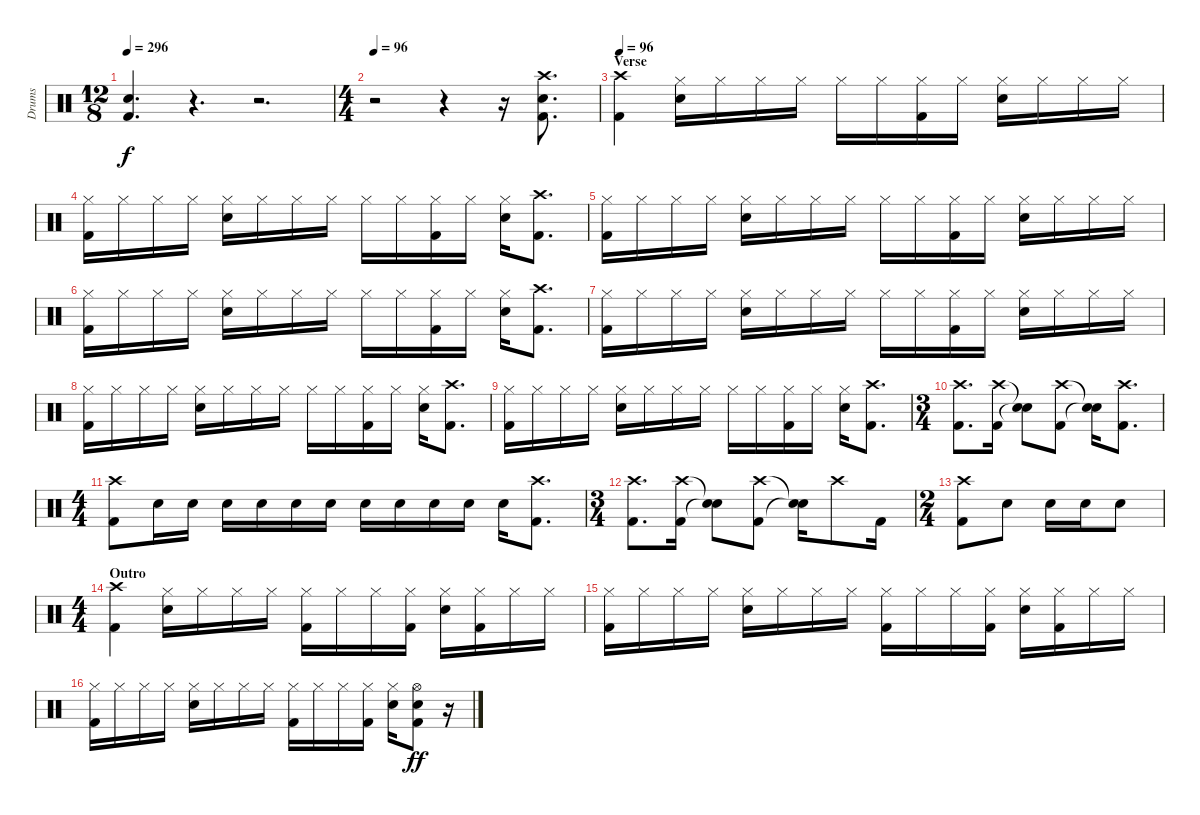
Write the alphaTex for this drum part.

\track ("Drums" "Drums") {instrument percussion}
\staff {score}
\articulation defaults
\ts (12 8)
\tempo 296
\clef neutral
\ks c
("Electric Snare (hit)" "Kick (hit) 2").4{d dy f} r.4{d} r.2{d} |
\ts (4 4)
\tempo 96
r.2 r.4 r.16 ("Crash high (hit)" "Electric Snare (hit)" "Kick (hit) 2").8{d} |
\section ("" "Verse")
\tempo 96
("Crash high (hit)" "Kick (hit) 2").4 ("Hi-Hat (closed)" "Electric Snare (hit)").16 "Hi-Hat (closed)".16 "Hi-Hat (closed)".16 "Hi-Hat (closed)".16 "Hi-Hat (closed)".16 "Hi-Hat (closed)".16 ("Hi-Hat (closed)" "Kick (hit) 2").16 "Hi-Hat (closed)".16 ("Hi-Hat (closed)" "Electric Snare (hit)").16 "Hi-Hat (closed)".16 "Hi-Hat (closed)".16 "Hi-Hat (closed)".16 |
("Hi-Hat (closed)" "Kick (hit) 2").16 "Hi-Hat (closed)".16 "Hi-Hat (closed)".16 "Hi-Hat (closed)".16 ("Hi-Hat (closed)" "Electric Snare (hit)").16 "Hi-Hat (closed)".16 "Hi-Hat (closed)".16 "Hi-Hat (closed)".16 "Hi-Hat (closed)".16 "Hi-Hat (closed)".16 ("Hi-Hat (closed)" "Kick (hit) 2").16 "Hi-Hat (closed)".16 ("Hi-Hat (closed)" "Electric Snare (hit)").16 ("Crash high (hit)" "Kick (hit) 2").8{d} |
("Hi-Hat (closed)" "Kick (hit) 2").16 "Hi-Hat (closed)".16 "Hi-Hat (closed)".16 "Hi-Hat (closed)".16 ("Hi-Hat (closed)" "Electric Snare (hit)").16 "Hi-Hat (closed)".16 "Hi-Hat (closed)".16 "Hi-Hat (closed)".16 "Hi-Hat (closed)".16 "Hi-Hat (closed)".16 ("Hi-Hat (closed)" "Kick (hit) 2").16 "Hi-Hat (closed)".16 ("Hi-Hat (closed)" "Electric Snare (hit)").16 "Hi-Hat (closed)".16 "Hi-Hat (closed)".16 "Hi-Hat (closed)".16 |
("Hi-Hat (closed)" "Kick (hit) 2").16 "Hi-Hat (closed)".16 "Hi-Hat (closed)".16 "Hi-Hat (closed)".16 ("Hi-Hat (closed)" "Electric Snare (hit)").16 "Hi-Hat (closed)".16 "Hi-Hat (closed)".16 "Hi-Hat (closed)".16 "Hi-Hat (closed)".16 "Hi-Hat (closed)".16 ("Hi-Hat (closed)" "Kick (hit) 2").16 "Hi-Hat (closed)".16 ("Hi-Hat (closed)" "Electric Snare (hit)").16 ("Crash high (hit)" "Kick (hit) 2").8{d} |
("Hi-Hat (closed)" "Kick (hit) 2").16 "Hi-Hat (closed)".16 "Hi-Hat (closed)".16 "Hi-Hat (closed)".16 ("Hi-Hat (closed)" "Electric Snare (hit)").16 "Hi-Hat (closed)".16 "Hi-Hat (closed)".16 "Hi-Hat (closed)".16 "Hi-Hat (closed)".16 "Hi-Hat (closed)".16 ("Hi-Hat (closed)" "Kick (hit) 2").16 "Hi-Hat (closed)".16 ("Hi-Hat (closed)" "Electric Snare (hit)").16 "Hi-Hat (closed)".16 "Hi-Hat (closed)".16 "Hi-Hat (closed)".16 |
("Hi-Hat (closed)" "Kick (hit) 2").16 "Hi-Hat (closed)".16 "Hi-Hat (closed)".16 "Hi-Hat (closed)".16 ("Hi-Hat (closed)" "Electric Snare (hit)").16 "Hi-Hat (closed)".16 "Hi-Hat (closed)".16 "Hi-Hat (closed)".16 "Hi-Hat (closed)".16 "Hi-Hat (closed)".16 ("Hi-Hat (closed)" "Kick (hit) 2").16 "Hi-Hat (closed)".16 ("Hi-Hat (closed)" "Electric Snare (hit)").16 ("Crash high (hit)" "Kick (hit) 2").8{d} |
("Hi-Hat (closed)" "Kick (hit) 2").16 "Hi-Hat (closed)".16 "Hi-Hat (closed)".16 "Hi-Hat (closed)".16 ("Hi-Hat (closed)" "Electric Snare (hit)").16 "Hi-Hat (closed)".16 "Hi-Hat (closed)".16 "Hi-Hat (closed)".16 "Hi-Hat (closed)".16 "Hi-Hat (closed)".16 ("Hi-Hat (closed)" "Kick (hit) 2").16 "Hi-Hat (closed)".16 ("Hi-Hat (closed)" "Electric Snare (hit)").16 ("Crash high (hit)" "Kick (hit) 2").8{d} |
\ts (3 4)
("Crash high (hit)" "Kick (hit) 2").8{d} ("Crash high (hit)" "Kick (hit) 2").16 ("Snare (hit)"{t} "Snare (hit)"{t}).8 ("Crash high (hit)" "Kick (hit) 2").8 ("Snare (hit)"{t} "Snare (hit)"{t}).16 ("Crash high (hit)" "Kick (hit) 2").8{d} |
\ts (4 4)
("Crash high (hit)" "Kick (hit) 2").8 "Electric Snare (hit)".16 "Electric Snare (hit)".16 "Electric Snare (hit)".16 "Electric Snare (hit)".16 "Electric Snare (hit)".16 "Electric Snare (hit)".16 "Electric Snare (hit)".16 "Electric Snare (hit)".16 "Electric Snare (hit)".16 "Electric Snare (hit)".16 "Electric Snare (hit)".16 ("Crash high (hit)" "Kick (hit) 2").8{d} |
\ts (3 4)
("Crash high (hit)" "Kick (hit) 2").8{d} ("Crash high (hit)" "Kick (hit) 2").16 ("Snare (hit)"{t} "Snare (hit)"{t}).8 ("Crash high (hit)" "Kick (hit) 2").8 ("Snare (hit)"{t} "Snare (hit)"{t}).16 "Crash high (hit)".8 "Kick (hit) 2".16 |
\ts (2 4)
("Crash high (hit)" "Kick (hit) 2").8 "Electric Snare (hit)".8 "Electric Snare (hit)".16 "Electric Snare (hit)".16 "Electric Snare (hit)".8 |
\ts (4 4)
\section ("" "Outro")
("Crash high (hit)" "Kick (hit) 2").4 ("Hi-Hat (closed)" "Electric Snare (hit)").16 "Hi-Hat (closed)".16 "Hi-Hat (closed)".16 "Hi-Hat (closed)".16 ("Hi-Hat (closed)" "Kick (hit) 2").16 "Hi-Hat (closed)".16 "Hi-Hat (closed)".16 ("Hi-Hat (closed)" "Kick (hit) 2").16 ("Hi-Hat (closed)" "Electric Snare (hit)").16 ("Hi-Hat (closed)" "Kick (hit) 2").16 "Hi-Hat (closed)".16 "Hi-Hat (closed)".16 |
("Hi-Hat (closed)" "Kick (hit) 2").16 "Hi-Hat (closed)".16 "Hi-Hat (closed)".16 "Hi-Hat (closed)".16 ("Hi-Hat (closed)" "Electric Snare (hit)").16 "Hi-Hat (closed)".16 "Hi-Hat (closed)".16 "Hi-Hat (closed)".16 ("Hi-Hat (closed)" "Kick (hit) 2").16 "Hi-Hat (closed)".16 "Hi-Hat (closed)".16 ("Hi-Hat (closed)" "Kick (hit) 2").16 ("Hi-Hat (closed)" "Electric Snare (hit)").16 ("Hi-Hat (closed)" "Kick (hit) 2").16 "Hi-Hat (closed)".16 "Hi-Hat (closed)".16 |
("Hi-Hat (closed)" "Kick (hit) 2").16 "Hi-Hat (closed)".16 "Hi-Hat (closed)".16 "Hi-Hat (closed)".16 ("Hi-Hat (closed)" "Electric Snare (hit)").16 "Hi-Hat (closed)".16 "Hi-Hat (closed)".16 "Hi-Hat (closed)".16 ("Hi-Hat (closed)" "Kick (hit) 2").16 "Hi-Hat (closed)".16 "Hi-Hat (closed)".16 ("Hi-Hat (closed)" "Kick (hit) 2").16 ("Hi-Hat (closed)" "Electric Snare (hit)").16 ("Hi-Hat (open)" "Electric Snare (hit)" "Kick (hit) 2").8{dy ff} r.16
